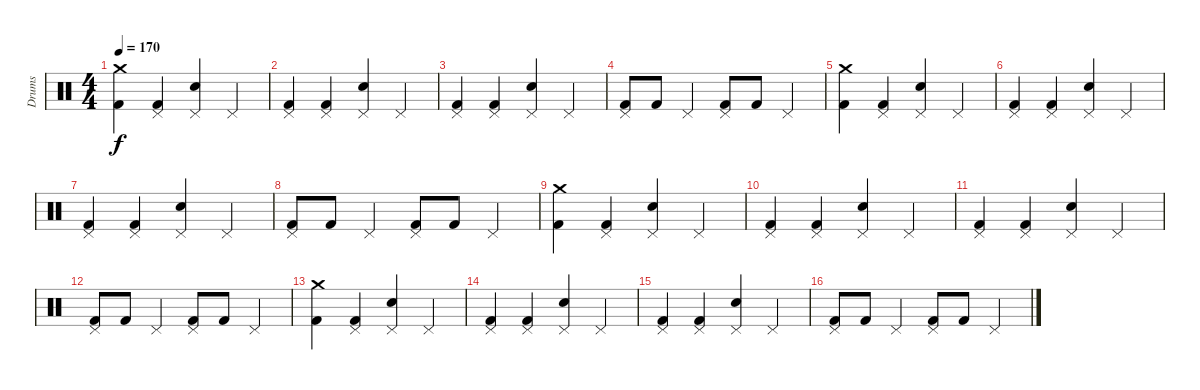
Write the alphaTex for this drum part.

\track ("Drums" "Drums") {instrument percussion}
\staff {score}
\articulation defaults
\ts (4 4)
\tempo 170
\clef neutral
\ks c
("Crash medium (hit)" "Kick (hit) 2").4{dy f} ("Pedal Hi-Hat (hit)" "Kick (hit) 2").4 ("Pedal Hi-Hat (hit)" "Electric Snare (hit)").4 "Pedal Hi-Hat (hit)".4 |
("Pedal Hi-Hat (hit)" "Kick (hit) 2").4 ("Pedal Hi-Hat (hit)" "Kick (hit) 2").4 ("Pedal Hi-Hat (hit)" "Electric Snare (hit)").4 "Pedal Hi-Hat (hit)".4 |
("Pedal Hi-Hat (hit)" "Kick (hit) 2").4 ("Pedal Hi-Hat (hit)" "Kick (hit) 2").4 ("Pedal Hi-Hat (hit)" "Electric Snare (hit)").4 "Pedal Hi-Hat (hit)".4 |
("Pedal Hi-Hat (hit)" "Kick (hit) 2").8 "Kick (hit) 2".8 "Pedal Hi-Hat (hit)".4 ("Pedal Hi-Hat (hit)" "Kick (hit) 2").8 "Kick (hit) 2".8 "Pedal Hi-Hat (hit)".4 |
("Crash medium (hit)" "Kick (hit) 2").4 ("Pedal Hi-Hat (hit)" "Kick (hit) 2").4 ("Pedal Hi-Hat (hit)" "Electric Snare (hit)").4 "Pedal Hi-Hat (hit)".4 |
("Pedal Hi-Hat (hit)" "Kick (hit) 2").4 ("Pedal Hi-Hat (hit)" "Kick (hit) 2").4 ("Pedal Hi-Hat (hit)" "Electric Snare (hit)").4 "Pedal Hi-Hat (hit)".4 |
("Pedal Hi-Hat (hit)" "Kick (hit) 2").4 ("Pedal Hi-Hat (hit)" "Kick (hit) 2").4 ("Pedal Hi-Hat (hit)" "Electric Snare (hit)").4 "Pedal Hi-Hat (hit)".4 |
("Pedal Hi-Hat (hit)" "Kick (hit) 2").8 "Kick (hit) 2".8 "Pedal Hi-Hat (hit)".4 ("Pedal Hi-Hat (hit)" "Kick (hit) 2").8 "Kick (hit) 2".8 "Pedal Hi-Hat (hit)".4 |
("Crash medium (hit)" "Kick (hit) 2").4 ("Pedal Hi-Hat (hit)" "Kick (hit) 2").4 ("Pedal Hi-Hat (hit)" "Electric Snare (hit)").4 "Pedal Hi-Hat (hit)".4 |
("Pedal Hi-Hat (hit)" "Kick (hit) 2").4 ("Pedal Hi-Hat (hit)" "Kick (hit) 2").4 ("Pedal Hi-Hat (hit)" "Electric Snare (hit)").4 "Pedal Hi-Hat (hit)".4 |
("Pedal Hi-Hat (hit)" "Kick (hit) 2").4 ("Pedal Hi-Hat (hit)" "Kick (hit) 2").4 ("Pedal Hi-Hat (hit)" "Electric Snare (hit)").4 "Pedal Hi-Hat (hit)".4 |
("Pedal Hi-Hat (hit)" "Kick (hit) 2").8 "Kick (hit) 2".8 "Pedal Hi-Hat (hit)".4 ("Pedal Hi-Hat (hit)" "Kick (hit) 2").8 "Kick (hit) 2".8 "Pedal Hi-Hat (hit)".4 |
("Crash medium (hit)" "Kick (hit) 2").4 ("Pedal Hi-Hat (hit)" "Kick (hit) 2").4 ("Pedal Hi-Hat (hit)" "Electric Snare (hit)").4 "Pedal Hi-Hat (hit)".4 |
("Pedal Hi-Hat (hit)" "Kick (hit) 2").4 ("Pedal Hi-Hat (hit)" "Kick (hit) 2").4 ("Pedal Hi-Hat (hit)" "Electric Snare (hit)").4 "Pedal Hi-Hat (hit)".4 |
("Pedal Hi-Hat (hit)" "Kick (hit) 2").4 ("Pedal Hi-Hat (hit)" "Kick (hit) 2").4 ("Pedal Hi-Hat (hit)" "Electric Snare (hit)").4 "Pedal Hi-Hat (hit)".4 |
("Pedal Hi-Hat (hit)" "Kick (hit) 2").8 "Kick (hit) 2".8 "Pedal Hi-Hat (hit)".4 ("Pedal Hi-Hat (hit)" "Kick (hit) 2").8 "Kick (hit) 2".8 "Pedal Hi-Hat (hit)".4
